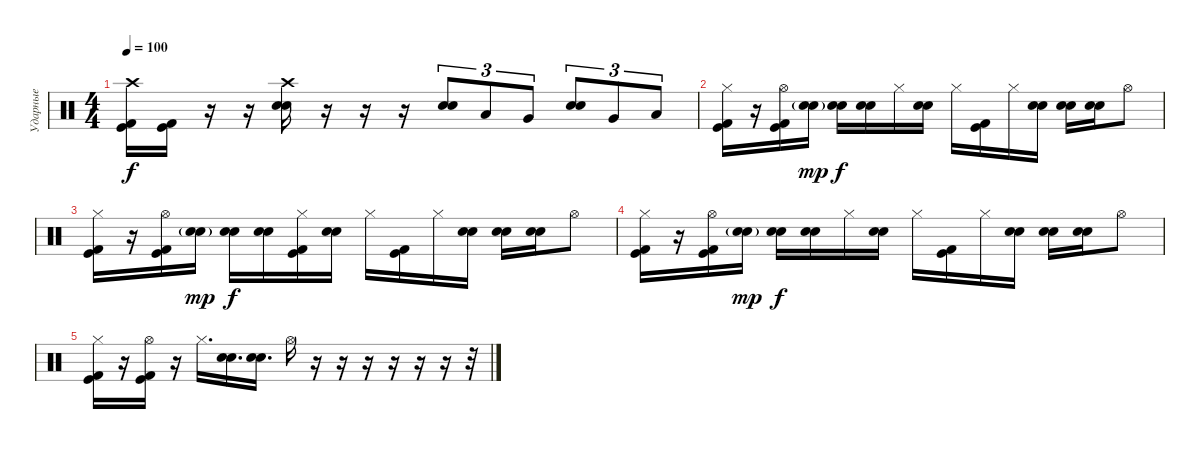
\track ("Ударные" "Ударные") {instrument percussion}
\staff {score}
\articulation defaults
\ts (4 4)
\tempo 100
\clef neutral
\ks c
("Crash high (hit)" "Kick (hit)" "Kick (hit) 2").16{dy f} ("Kick (hit)" "Kick (hit) 2").16 r.16 r.16 ("Crash high (hit)" "Snare (hit) 2" "Electric Snare (hit)").16 r.16 r.16 r.16 ("Snare (hit) 2" "Electric Snare (hit)").8{tu (3 2)} "Low Tom (hit)".8{tu (3 2)} "Very Low Tom (hit)".8{tu (3 2)} ("Snare (hit) 2" "Electric Snare (hit)").8{tu (3 2)} "Very Low Tom (hit)".8{tu (3 2)} "Low Floor Tom (hit)".8{tu (3 2)} |
("Hi-Hat (closed)" "Kick (hit)" "Kick (hit) 2").16 r.16 ("Hi-Hat (open)" "Kick (hit)" "Kick (hit) 2").16 ("Snare (hit) 2"{g} "Electric Snare (hit)"{g}).16{dy mp} ("Snare (hit) 2" "Electric Snare (hit)").16{dy f} ("Snare (hit) 2" "Electric Snare (hit)").16 "Hi-Hat (closed)".16 ("Snare (hit) 2" "Electric Snare (hit)").16 "Hi-Hat (closed)".16 ("Kick (hit)" "Kick (hit) 2").16 "Hi-Hat (closed)".16 ("Snare (hit) 2" "Electric Snare (hit)").16 ("Snare (hit) 2" "Electric Snare (hit)").16 ("Snare (hit) 2" "Electric Snare (hit)").16 "Hi-Hat (open)".8 |
("Hi-Hat (closed)" "Kick (hit)" "Kick (hit) 2").16 r.16 ("Hi-Hat (open)" "Kick (hit)" "Kick (hit) 2").16 ("Snare (hit) 2"{g} "Electric Snare (hit)"{g}).16{dy mp} ("Snare (hit) 2" "Electric Snare (hit)").16{dy f} ("Snare (hit) 2" "Electric Snare (hit)").16 ("Hi-Hat (closed)" "Kick (hit)" "Kick (hit) 2").16 ("Snare (hit) 2" "Electric Snare (hit)").16 "Hi-Hat (closed)".16 ("Kick (hit)" "Kick (hit) 2").16 "Hi-Hat (closed)".16 ("Snare (hit) 2" "Electric Snare (hit)").16 ("Snare (hit) 2" "Electric Snare (hit)").16 ("Snare (hit) 2" "Electric Snare (hit)").16 "Hi-Hat (open)".8 |
("Hi-Hat (closed)" "Kick (hit)" "Kick (hit) 2").16 r.16 ("Hi-Hat (open)" "Kick (hit)" "Kick (hit) 2").16 ("Snare (hit) 2"{g} "Electric Snare (hit)"{g}).16{dy mp} ("Snare (hit) 2" "Electric Snare (hit)").16{dy f} ("Snare (hit) 2" "Electric Snare (hit)").16 "Hi-Hat (closed)".16 ("Snare (hit) 2" "Electric Snare (hit)").16 "Hi-Hat (closed)".16 ("Kick (hit)" "Kick (hit) 2").16 "Hi-Hat (closed)".16 ("Snare (hit) 2" "Electric Snare (hit)").16 ("Snare (hit) 2" "Electric Snare (hit)").16 ("Snare (hit) 2" "Electric Snare (hit)").16 "Hi-Hat (open)".8 |
("Hi-Hat (closed)" "Kick (hit)" "Kick (hit) 2").16 r.16 ("Hi-Hat (open)" "Kick (hit)" "Kick (hit) 2").16 r.16 "Hi-Hat (closed)".16{d} ("Snare (hit) 2" "Electric Snare (hit)").16{d} ("Snare (hit) 2" "Electric Snare (hit)").16{d} "Hi-Hat (open)".16 r.16 r.16 r.16 r.16 r.16 r.16 r.32
